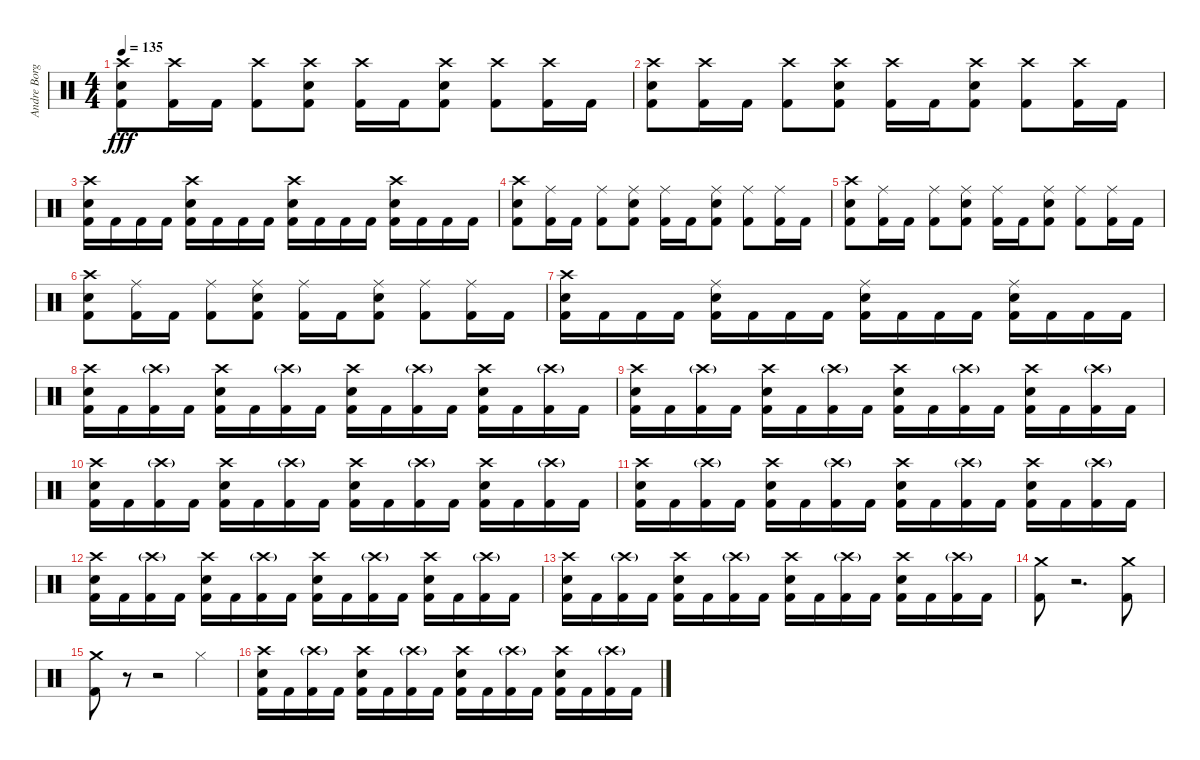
\track ("Andre Borgman" "Andre Borg") {instrument percussion}
\staff {score}
\articulation defaults
\ts (4 4)
\tempo 135
\clef neutral
\ks c
("Crash high (hit)" "Snare (hit) 2" "Kick (hit) 2").8{dy fff} ("Crash high (hit)" "Kick (hit) 2").16 "Kick (hit) 2".16 ("Crash high (hit)" "Kick (hit) 2").8 ("Crash high (hit)" "Snare (hit) 2" "Kick (hit) 2").8 ("Crash high (hit)" "Kick (hit) 2").16 "Kick (hit) 2".16 ("Crash high (hit)" "Snare (hit) 2" "Kick (hit) 2").8 ("Crash high (hit)" "Kick (hit) 2").8 ("Crash high (hit)" "Kick (hit) 2").16 "Kick (hit) 2".16 |
("Crash high (hit)" "Snare (hit) 2" "Kick (hit) 2").8 ("Crash high (hit)" "Kick (hit) 2").16 "Kick (hit) 2".16 ("Crash high (hit)" "Kick (hit) 2").8 ("Crash high (hit)" "Snare (hit) 2" "Kick (hit) 2").8 ("Crash high (hit)" "Kick (hit) 2").16 "Kick (hit) 2".16 ("Crash high (hit)" "Snare (hit) 2" "Kick (hit) 2").8 ("Crash high (hit)" "Kick (hit) 2").8 ("Crash high (hit)" "Kick (hit) 2").16 "Kick (hit) 2".16 |
("Crash high (hit)" "Snare (hit) 2" "Kick (hit) 2").16 "Kick (hit) 2".16 "Kick (hit) 2".16 "Kick (hit) 2".16 ("Crash high (hit)" "Snare (hit) 2" "Kick (hit) 2").16 "Kick (hit) 2".16 "Kick (hit) 2".16 "Kick (hit) 2".16 ("Crash high (hit)" "Snare (hit) 2" "Kick (hit) 2").16 "Kick (hit) 2".16 "Kick (hit) 2".16 "Kick (hit) 2".16 ("Crash high (hit)" "Snare (hit) 2" "Kick (hit) 2").16 "Kick (hit) 2".16 "Kick (hit) 2".16 "Kick (hit) 2".16 |
("Crash high (hit)" "Snare (hit) 2" "Kick (hit) 2").8 ("Ride (middle)" "Kick (hit) 2").16 "Kick (hit) 2".16 ("Ride (middle)" "Kick (hit) 2").8 ("Ride (middle)" "Snare (hit) 2" "Kick (hit) 2").8 ("Ride (middle)" "Kick (hit) 2").16 "Kick (hit) 2".16 ("Ride (middle)" "Snare (hit) 2" "Kick (hit) 2").8 ("Ride (middle)" "Kick (hit) 2").8 ("Ride (middle)" "Kick (hit) 2").16 "Kick (hit) 2".16 |
("Crash high (hit)" "Snare (hit) 2" "Kick (hit) 2").8 ("Ride (middle)" "Kick (hit) 2").16 "Kick (hit) 2".16 ("Ride (middle)" "Kick (hit) 2").8 ("Ride (middle)" "Snare (hit) 2" "Kick (hit) 2").8 ("Ride (middle)" "Kick (hit) 2").16 "Kick (hit) 2".16 ("Ride (middle)" "Snare (hit) 2" "Kick (hit) 2").8 ("Ride (middle)" "Kick (hit) 2").8 ("Ride (middle)" "Kick (hit) 2").16 "Kick (hit) 2".16 |
("Crash high (hit)" "Snare (hit) 2" "Kick (hit) 2").8 ("Ride (middle)" "Kick (hit) 2").16 "Kick (hit) 2".16 ("Ride (middle)" "Kick (hit) 2").8 ("Ride (middle)" "Snare (hit) 2" "Kick (hit) 2").8 ("Ride (middle)" "Kick (hit) 2").16 "Kick (hit) 2".16 ("Ride (middle)" "Snare (hit) 2" "Kick (hit) 2").8 ("Ride (middle)" "Kick (hit) 2").8 ("Ride (middle)" "Kick (hit) 2").16 "Kick (hit) 2".16 |
("Crash high (hit)" "Snare (hit) 2" "Kick (hit) 2").16 "Kick (hit) 2".16 "Kick (hit) 2".16 "Kick (hit) 2".16 ("Ride (middle)" "Snare (hit) 2" "Kick (hit) 2").16 "Kick (hit) 2".16 "Kick (hit) 2".16 "Kick (hit) 2".16 ("Ride (middle)" "Snare (hit) 2" "Kick (hit) 2").16 "Kick (hit) 2".16 "Kick (hit) 2".16 "Kick (hit) 2".16 ("Ride (middle)" "Snare (hit) 2" "Kick (hit) 2").16 "Kick (hit) 2".16 "Kick (hit) 2".16 "Kick (hit) 2".16 |
("Crash high (hit)" "Snare (hit) 2" "Kick (hit) 2").16 "Kick (hit) 2".16 ("Crash high (hit)"{g} "Kick (hit) 2").16 "Kick (hit) 2".16 ("Crash high (hit)" "Snare (hit) 2" "Kick (hit) 2").16 "Kick (hit) 2".16 ("Crash high (hit)"{g} "Kick (hit) 2").16 "Kick (hit) 2".16 ("Crash high (hit)" "Snare (hit) 2" "Kick (hit) 2").16 "Kick (hit) 2".16 ("Crash high (hit)"{g} "Kick (hit) 2").16 "Kick (hit) 2".16 ("Crash high (hit)" "Snare (hit) 2" "Kick (hit) 2").16 "Kick (hit) 2".16 ("Crash high (hit)"{g} "Kick (hit) 2").16 "Kick (hit) 2".16 |
("Crash high (hit)" "Snare (hit) 2" "Kick (hit) 2").16 "Kick (hit) 2".16 ("Crash high (hit)"{g} "Kick (hit) 2").16 "Kick (hit) 2".16 ("Crash high (hit)" "Snare (hit) 2" "Kick (hit) 2").16 "Kick (hit) 2".16 ("Crash high (hit)"{g} "Kick (hit) 2").16 "Kick (hit) 2".16 ("Crash high (hit)" "Snare (hit) 2" "Kick (hit) 2").16 "Kick (hit) 2".16 ("Crash high (hit)"{g} "Kick (hit) 2").16 "Kick (hit) 2".16 ("Crash high (hit)" "Snare (hit) 2" "Kick (hit) 2").16 "Kick (hit) 2".16 ("Crash high (hit)"{g} "Kick (hit) 2").16 "Kick (hit) 2".16 |
("Crash high (hit)" "Snare (hit) 2" "Kick (hit) 2").16 "Kick (hit) 2".16 ("Crash high (hit)"{g} "Kick (hit) 2").16 "Kick (hit) 2".16 ("Crash high (hit)" "Snare (hit) 2" "Kick (hit) 2").16 "Kick (hit) 2".16 ("Crash high (hit)"{g} "Kick (hit) 2").16 "Kick (hit) 2".16 ("Crash high (hit)" "Snare (hit) 2" "Kick (hit) 2").16 "Kick (hit) 2".16 ("Crash high (hit)"{g} "Kick (hit) 2").16 "Kick (hit) 2".16 ("Crash high (hit)" "Snare (hit) 2" "Kick (hit) 2").16 "Kick (hit) 2".16 ("Crash high (hit)"{g} "Kick (hit) 2").16 "Kick (hit) 2".16 |
("Crash high (hit)" "Snare (hit) 2" "Kick (hit) 2").16 "Kick (hit) 2".16 ("Crash high (hit)"{g} "Kick (hit) 2").16 "Kick (hit) 2".16 ("Crash high (hit)" "Snare (hit) 2" "Kick (hit) 2").16 "Kick (hit) 2".16 ("Crash high (hit)"{g} "Kick (hit) 2").16 "Kick (hit) 2".16 ("Crash high (hit)" "Snare (hit) 2" "Kick (hit) 2").16 "Kick (hit) 2".16 ("Crash high (hit)"{g} "Kick (hit) 2").16 "Kick (hit) 2".16 ("Crash high (hit)" "Snare (hit) 2" "Kick (hit) 2").16 "Kick (hit) 2".16 ("Crash high (hit)"{g} "Kick (hit) 2").16 "Kick (hit) 2".16 |
("Crash high (hit)" "Snare (hit) 2" "Kick (hit) 2").16 "Kick (hit) 2".16 ("Crash high (hit)"{g} "Kick (hit) 2").16 "Kick (hit) 2".16 ("Crash high (hit)" "Snare (hit) 2" "Kick (hit) 2").16 "Kick (hit) 2".16 ("Crash high (hit)"{g} "Kick (hit) 2").16 "Kick (hit) 2".16 ("Crash high (hit)" "Snare (hit) 2" "Kick (hit) 2").16 "Kick (hit) 2".16 ("Crash high (hit)"{g} "Kick (hit) 2").16 "Kick (hit) 2".16 ("Crash high (hit)" "Snare (hit) 2" "Kick (hit) 2").16 "Kick (hit) 2".16 ("Crash high (hit)"{g} "Kick (hit) 2").16 "Kick (hit) 2".16 |
("Crash high (hit)" "Snare (hit) 2" "Kick (hit) 2").16 "Kick (hit) 2".16 ("Crash high (hit)"{g} "Kick (hit) 2").16 "Kick (hit) 2".16 ("Crash high (hit)" "Snare (hit) 2" "Kick (hit) 2").16 "Kick (hit) 2".16 ("Crash high (hit)"{g} "Kick (hit) 2").16 "Kick (hit) 2".16 ("Crash high (hit)" "Snare (hit) 2" "Kick (hit) 2").16 "Kick (hit) 2".16 ("Crash high (hit)"{g} "Kick (hit) 2").16 "Kick (hit) 2".16 ("Crash high (hit)" "Snare (hit) 2" "Kick (hit) 2").16 "Kick (hit) 2".16 ("Crash high (hit)"{g} "Kick (hit) 2").16 "Kick (hit) 2".16 |
("Crash medium (hit)" "Kick (hit) 2").8 r.2{d} ("Crash medium (hit)" "Kick (hit) 2").8 |
("Crash medium (hit)" "Kick (hit) 2").8 r.8 r.2 "Hi-Hat (closed)".4 |
("Crash high (hit)" "Snare (hit) 2" "Kick (hit) 2").16 "Kick (hit) 2".16 ("Crash high (hit)"{g} "Kick (hit) 2").16 "Kick (hit) 2".16 ("Crash high (hit)" "Snare (hit) 2" "Kick (hit) 2").16 "Kick (hit) 2".16 ("Crash high (hit)"{g} "Kick (hit) 2").16 "Kick (hit) 2".16 ("Crash high (hit)" "Snare (hit) 2" "Kick (hit) 2").16 "Kick (hit) 2".16 ("Crash high (hit)"{g} "Kick (hit) 2").16 "Kick (hit) 2".16 ("Crash high (hit)" "Snare (hit) 2" "Kick (hit) 2").16 "Kick (hit) 2".16 ("Crash high (hit)"{g} "Kick (hit) 2").16 "Kick (hit) 2".16
